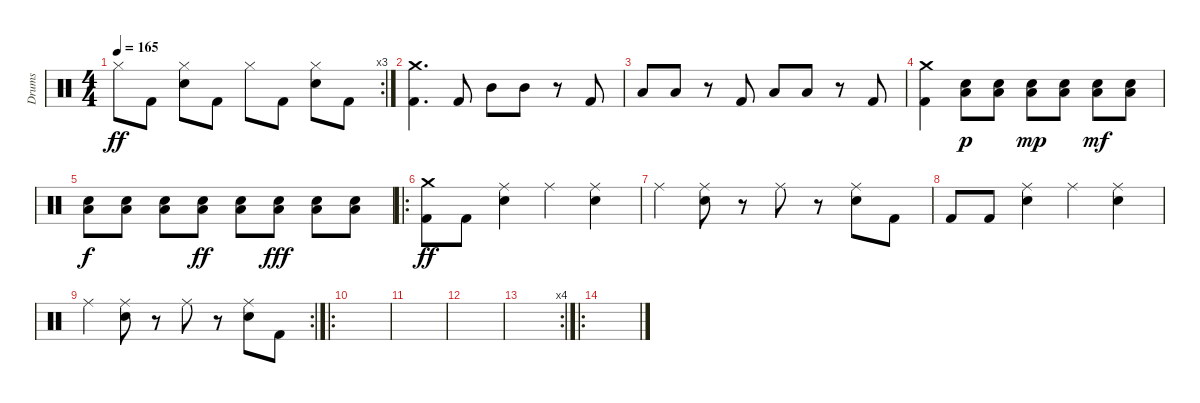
\track ("Drums" "Drums") {instrument percussion}
\staff {score}
\articulation defaults
\rc 3
\ts (4 4)
\tempo 165
\clef neutral
\ks c "Hi-Hat (closed)".8{dy ff} "Kick (hit) 2".8
("Hi-Hat (closed)" "Snare (hit) 2").8 "Kick (hit) 2".8 "Hi-Hat (closed)".8 "Kick (hit) 2".8 ("Hi-Hat (closed)" "Snare (hit) 2").8 "Kick (hit) 2".8 |
("Crash medium (hit)" "Kick (hit) 2").4{d} "Kick (hit) 2".8 "Mid Tom (hit)".8 "Mid Tom (hit)".8 r.8 "Kick (hit) 2".8 |
"Low Tom (hit)".8 "Low Tom (hit)".8 r.8 "Kick (hit) 2".8 "Low Floor Tom (hit)".8 "Low Floor Tom (hit)".8 r.8 "Kick (hit) 2".8 |
("Crash medium (hit)" "Kick (hit) 2").4 ("Snare (hit) 2" "Low Floor Tom (hit)").8{dy p} ("Snare (hit) 2" "Low Floor Tom (hit)").8 ("Snare (hit) 2" "Low Floor Tom (hit)").8{dy mp} ("Snare (hit) 2" "Low Floor Tom (hit)").8 ("Snare (hit) 2" "Low Floor Tom (hit)").8{dy mf} ("Snare (hit) 2" "Low Floor Tom (hit)").8 |
("Snare (hit) 2" "Low Floor Tom (hit)").8{dy f} ("Snare (hit) 2" "Low Floor Tom (hit)").8 ("Snare (hit) 2" "Low Floor Tom (hit)").8 ("Snare (hit) 2" "Low Floor Tom (hit)").8{dy ff} ("Snare (hit) 2" "Low Floor Tom (hit)").8 ("Snare (hit) 2" "Low Floor Tom (hit)").8{dy fff} ("Snare (hit) 2" "Low Floor Tom (hit)").8 ("Snare (hit) 2" "Low Floor Tom (hit)").8 |
\ro
("Crash medium (hit)" "Kick (hit) 2").8{dy ff} "Kick (hit) 2".8 ("Ride (middle)" "Snare (hit) 2").4 "Ride (middle)".4 ("Ride (middle)" "Snare (hit) 2").4 |
"Ride (middle)".4 ("Ride (middle)" "Snare (hit) 2").8 r.8 "Ride (middle)".8 r.8 ("Ride (middle)" "Snare (hit) 2").8 "Kick (hit) 2".8 |
"Kick (hit) 2".8 "Kick (hit) 2".8 ("Ride (middle)" "Snare (hit) 2").4 "Ride (middle)".4 ("Ride (middle)" "Snare (hit) 2").4 |
\rc 2 "Ride (middle)".4
("Ride (middle)" "Snare (hit) 2").8 r.8 "Ride (middle)".8 r.8 ("Ride (middle)" "Snare (hit) 2").8 "Kick (hit) 2".8 |
\ro
|
|
|
\rc 4
|
\ro
